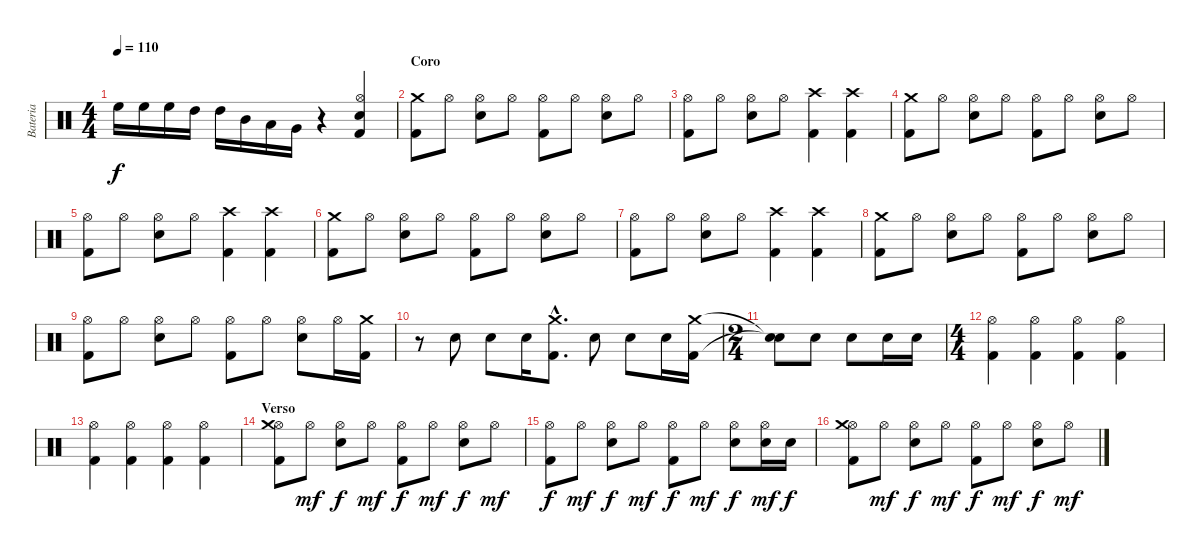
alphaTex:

\track ("Bateria" "Bateria") {instrument percussion}
\staff {score}
\articulation defaults
\ts (4 4)
\tempo 110
\clef neutral
\ks c "High Floor Tom (hit)".16{dy f} "High Floor Tom (hit)".16 "High Floor Tom (hit)".16 "High Tom (hit)".16 "High Tom (hit)".16 "Mid Tom (hit)".16 "Low Tom (hit)".16 "Very Low Tom (hit)".16
r.4 ("Kick (hit) 2" "Hi-Hat (open)" "Snare (hit) 2").4 |
\section ("" "Coro")
("Crash medium (hit)" "Kick (hit) 2").8 "Hi-Hat (open)".8 ("Snare (hit) 2" "Hi-Hat (open)").8 "Hi-Hat (open)".8 ("Kick (hit) 2" "Hi-Hat (open)").8 "Hi-Hat (open)".8 ("Snare (hit) 2" "Hi-Hat (open)").8 "Hi-Hat (open)".8 |
("Hi-Hat (open)" "Kick (hit) 2").8 "Hi-Hat (open)".8 ("Snare (hit) 2" "Hi-Hat (open)").8 "Hi-Hat (open)".8 ("Kick (hit) 2" "Crash high (hit)").4 ("Kick (hit) 2" "Crash high (hit)").4 |
("Crash medium (hit)" "Kick (hit) 2").8 "Hi-Hat (open)".8 ("Snare (hit) 2" "Hi-Hat (open)").8 "Hi-Hat (open)".8 ("Kick (hit) 2" "Hi-Hat (open)").8 "Hi-Hat (open)".8 ("Snare (hit) 2" "Hi-Hat (open)").8 "Hi-Hat (open)".8 |
("Hi-Hat (open)" "Kick (hit) 2").8 "Hi-Hat (open)".8 ("Snare (hit) 2" "Hi-Hat (open)").8 "Hi-Hat (open)".8 ("Kick (hit) 2" "Crash high (hit)").4 ("Kick (hit) 2" "Crash high (hit)").4 |
("Crash medium (hit)" "Kick (hit) 2").8 "Hi-Hat (open)".8 ("Snare (hit) 2" "Hi-Hat (open)").8 "Hi-Hat (open)".8 ("Kick (hit) 2" "Hi-Hat (open)").8 "Hi-Hat (open)".8 ("Snare (hit) 2" "Hi-Hat (open)").8 "Hi-Hat (open)".8 |
("Hi-Hat (open)" "Kick (hit) 2").8 "Hi-Hat (open)".8 ("Snare (hit) 2" "Hi-Hat (open)").8 "Hi-Hat (open)".8 ("Kick (hit) 2" "Crash high (hit)").4 ("Kick (hit) 2" "Crash high (hit)").4 |
("Crash medium (hit)" "Kick (hit) 2").8 "Hi-Hat (open)".8 ("Snare (hit) 2" "Hi-Hat (open)").8 "Hi-Hat (open)".8 ("Kick (hit) 2" "Hi-Hat (open)").8 "Hi-Hat (open)".8 ("Snare (hit) 2" "Hi-Hat (open)").8 "Hi-Hat (open)".8 |
("Hi-Hat (open)" "Kick (hit) 2").8 "Hi-Hat (open)".8 ("Snare (hit) 2" "Hi-Hat (open)").8 "Hi-Hat (open)".8 ("Kick (hit) 2" "Hi-Hat (open)").8 "Hi-Hat (open)".8 ("Snare (hit) 2" "Hi-Hat (open)").8 "Hi-Hat (open)".16 ("Kick (hit) 2" "Crash medium (hit)").16 |
\section ("" "")
r.8 "Snare (hit) 2".8 "Snare (hit) 2".8 "Snare (hit) 2".16 ("Kick (hit) 2"{hac} "Crash medium (hit)"{hac}).8{d} "Snare (hit) 2".8 "Snare (hit) 2".8 "Snare (hit) 2".16 ("Kick (hit) 2" "Crash medium (hit)").16 |
\ts (2 4)
("Snare (hit)"{t} "Snare (hit)"{t}).8 "Snare (hit) 2".8 "Snare (hit) 2".8 "Snare (hit) 2".16 "Snare (hit) 2".16 |
\ts (4 4)
("Hi-Hat (open)" "Kick (hit) 2").4 ("Hi-Hat (open)" "Kick (hit) 2").4 ("Hi-Hat (open)" "Kick (hit) 2").4 ("Hi-Hat (open)" "Kick (hit) 2").4 |
("Hi-Hat (open)" "Kick (hit) 2").4 ("Hi-Hat (open)" "Kick (hit) 2").4 ("Hi-Hat (open)" "Kick (hit) 2").4 ("Hi-Hat (open)" "Kick (hit) 2").4 |
\section ("" "Verso")
("Kick (hit) 2" "Hi-Hat (open)" "Crash medium (hit)").8 "Hi-Hat (open)".8{dy mf} ("Snare (hit) 2" "Hi-Hat (open)").8{dy f} "Hi-Hat (open)".8{dy mf} ("Kick (hit) 2" "Hi-Hat (open)").8{dy f} "Hi-Hat (open)".8{dy mf} ("Snare (hit) 2" "Hi-Hat (open)").8{dy f} "Hi-Hat (open)".8{dy mf} |
("Kick (hit) 2" "Hi-Hat (open)").8{dy f} "Hi-Hat (open)".8{dy mf} ("Snare (hit) 2" "Hi-Hat (open)").8{dy f} "Hi-Hat (open)".8{dy mf} ("Kick (hit) 2" "Hi-Hat (open)").8{dy f} "Hi-Hat (open)".8{dy mf} ("Snare (hit) 2" "Hi-Hat (open)").8{dy f} ("Snare (hit) 2" "Hi-Hat (open)").16{dy mf} "Snare (hit) 2".16{dy f} |
("Kick (hit) 2" "Hi-Hat (open)" "Crash medium (hit)").8 "Hi-Hat (open)".8{dy mf} ("Snare (hit) 2" "Hi-Hat (open)").8{dy f} "Hi-Hat (open)".8{dy mf} ("Kick (hit) 2" "Hi-Hat (open)").8{dy f} "Hi-Hat (open)".8{dy mf} ("Snare (hit) 2" "Hi-Hat (open)").8{dy f} "Hi-Hat (open)".8{dy mf}
